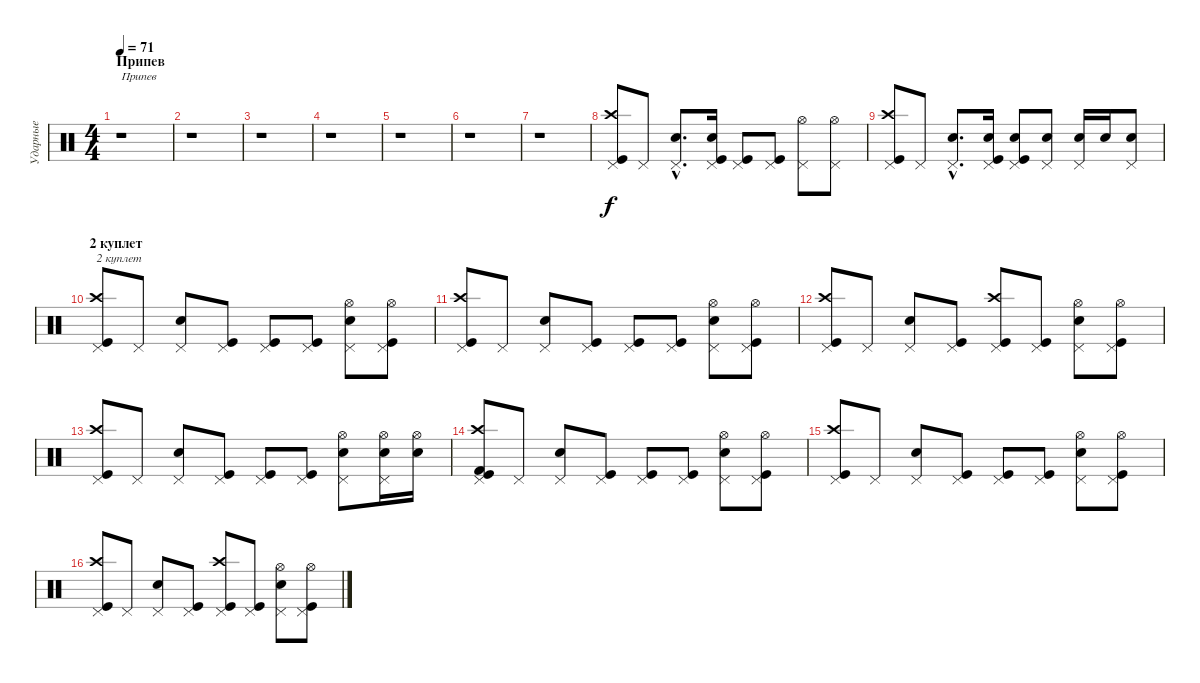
\track ("Ударные" "Ударные") {instrument percussion}
\staff {score}
\articulation defaults
\ts (4 4)
\section ("" "Припев")
\tempo 71
\clef neutral
\ks c
r.1{txt "Припев" dy f} |
r.1 |
r.1 |
r.1 |
r.1 |
r.1 |
r.1 |
("Kick (hit)" "Crash high (hit)" "Pedal Hi-Hat (hit)").8 "Pedal Hi-Hat (hit)".8 ("Snare (hit) 2"{hac} "Pedal Hi-Hat (hit)"{hac}).8{d} ("Snare (hit) 2" "Kick (hit)" "Pedal Hi-Hat (hit)").16 ("Kick (hit)" "Pedal Hi-Hat (hit)").8 ("Kick (hit)" "Pedal Hi-Hat (hit)").8 ("Hi-Hat (open)" "Pedal Hi-Hat (hit)").8 ("Hi-Hat (open)" "Pedal Hi-Hat (hit)").8 |
("Kick (hit)" "Crash high (hit)" "Pedal Hi-Hat (hit)").8 "Pedal Hi-Hat (hit)".8 ("Snare (hit) 2"{hac} "Pedal Hi-Hat (hit)"{hac}).8{d} ("Snare (hit) 2" "Kick (hit)" "Pedal Hi-Hat (hit)").16 ("Kick (hit)" "Snare (hit) 2" "Pedal Hi-Hat (hit)").8 ("Snare (hit) 2" "Pedal Hi-Hat (hit)").8 ("Snare (hit) 2" "Pedal Hi-Hat (hit)").16 "Snare (hit) 2".16 ("Snare (hit) 2" "Pedal Hi-Hat (hit)").8 |
\section ("" "2 куплет")
("Crash high (hit)" "Kick (hit)" "Pedal Hi-Hat (hit)").8{txt "2 куплет"} "Pedal Hi-Hat (hit)".8 ("Snare (hit) 2" "Pedal Hi-Hat (hit)").8 ("Kick (hit)" "Pedal Hi-Hat (hit)").8 ("Kick (hit)" "Pedal Hi-Hat (hit)").8 ("Kick (hit)" "Pedal Hi-Hat (hit)").8 ("Hi-Hat (open)" "Snare (hit) 2" "Pedal Hi-Hat (hit)").8 ("Hi-Hat (open)" "Kick (hit)" "Pedal Hi-Hat (hit)").8 |
("Crash high (hit)" "Kick (hit)" "Pedal Hi-Hat (hit)").8 "Pedal Hi-Hat (hit)".8 ("Snare (hit) 2" "Pedal Hi-Hat (hit)").8 ("Kick (hit)" "Pedal Hi-Hat (hit)").8 ("Kick (hit)" "Pedal Hi-Hat (hit)").8 ("Kick (hit)" "Pedal Hi-Hat (hit)").8 ("Hi-Hat (open)" "Snare (hit) 2" "Pedal Hi-Hat (hit)").8 ("Hi-Hat (open)" "Kick (hit)" "Pedal Hi-Hat (hit)").8 |
("Crash high (hit)" "Kick (hit)" "Pedal Hi-Hat (hit)").8 "Pedal Hi-Hat (hit)".8 ("Snare (hit) 2" "Pedal Hi-Hat (hit)").8 ("Kick (hit)" "Pedal Hi-Hat (hit)").8 ("Crash high (hit)" "Kick (hit)" "Pedal Hi-Hat (hit)").8 ("Kick (hit)" "Pedal Hi-Hat (hit)").8 ("Hi-Hat (open)" "Snare (hit) 2" "Pedal Hi-Hat (hit)").8 ("Hi-Hat (open)" "Kick (hit)" "Pedal Hi-Hat (hit)").8 |
("Crash high (hit)" "Kick (hit)" "Pedal Hi-Hat (hit)").8 "Pedal Hi-Hat (hit)".8 ("Snare (hit) 2" "Pedal Hi-Hat (hit)").8 ("Kick (hit)" "Pedal Hi-Hat (hit)").8 ("Kick (hit)" "Pedal Hi-Hat (hit)").8 ("Kick (hit)" "Pedal Hi-Hat (hit)").8 ("Hi-Hat (open)" "Snare (hit) 2" "Pedal Hi-Hat (hit)").8 ("Hi-Hat (open)" "Snare (hit) 2" "Pedal Hi-Hat (hit)").16 ("Hi-Hat (open)" "Snare (hit) 2").16 |
("Crash high (hit)" "Kick (hit)" "Kick (hit) 2" "Pedal Hi-Hat (hit)").8 "Pedal Hi-Hat (hit)".8 ("Snare (hit) 2" "Pedal Hi-Hat (hit)").8 ("Kick (hit)" "Pedal Hi-Hat (hit)").8 ("Kick (hit)" "Pedal Hi-Hat (hit)").8 ("Kick (hit)" "Pedal Hi-Hat (hit)").8 ("Hi-Hat (open)" "Snare (hit) 2" "Pedal Hi-Hat (hit)").8 ("Hi-Hat (open)" "Kick (hit)" "Pedal Hi-Hat (hit)").8 |
("Crash high (hit)" "Kick (hit)" "Pedal Hi-Hat (hit)").8 "Pedal Hi-Hat (hit)".8 ("Snare (hit) 2" "Pedal Hi-Hat (hit)").8 ("Kick (hit)" "Pedal Hi-Hat (hit)").8 ("Kick (hit)" "Pedal Hi-Hat (hit)").8 ("Kick (hit)" "Pedal Hi-Hat (hit)").8 ("Hi-Hat (open)" "Snare (hit) 2" "Pedal Hi-Hat (hit)").8 ("Hi-Hat (open)" "Kick (hit)" "Pedal Hi-Hat (hit)").8 |
("Crash high (hit)" "Kick (hit)" "Pedal Hi-Hat (hit)").8 "Pedal Hi-Hat (hit)".8 ("Snare (hit) 2" "Pedal Hi-Hat (hit)").8 ("Kick (hit)" "Pedal Hi-Hat (hit)").8 ("Crash high (hit)" "Kick (hit)" "Pedal Hi-Hat (hit)").8 ("Kick (hit)" "Pedal Hi-Hat (hit)").8 ("Hi-Hat (open)" "Snare (hit) 2" "Pedal Hi-Hat (hit)").8 ("Hi-Hat (open)" "Kick (hit)" "Pedal Hi-Hat (hit)").8
